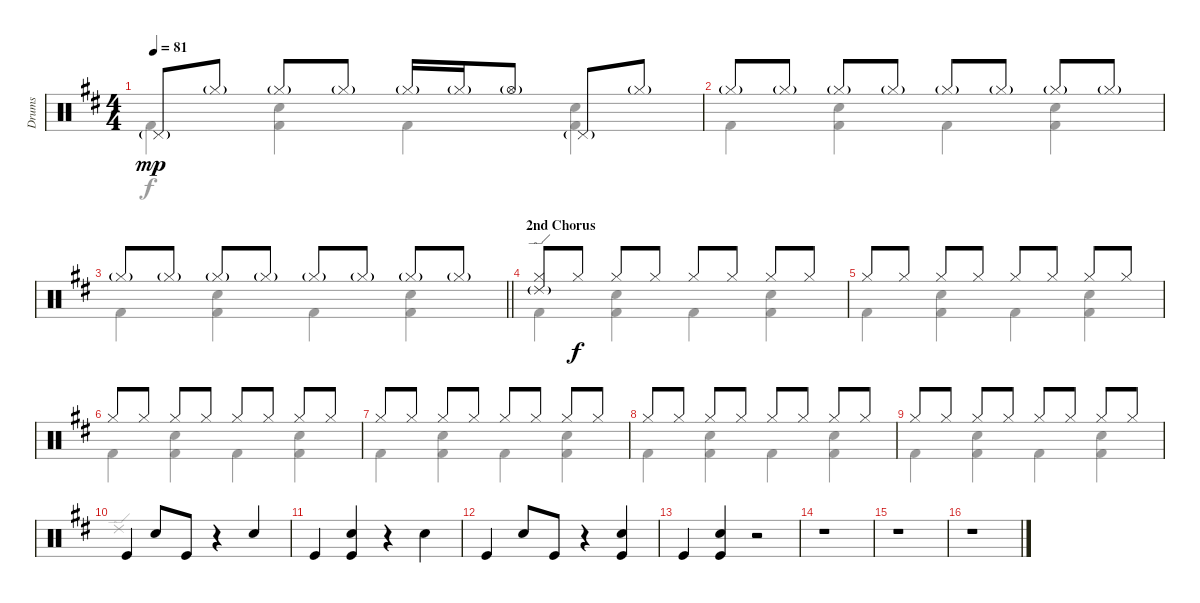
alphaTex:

\track ("Drums" "Drums") {instrument percussion}
\staff {score}
\articulation defaults
\voice
\ts (4 4)
\tempo 81
\clef neutral
\ks d "Pedal Hi-Hat (hit)"{g}.8{dy mp} "Hi-Hat (closed)"{g}.8 "Hi-Hat (closed)"{g}.8 "Hi-Hat (closed)"{g}.8 "Hi-Hat (closed)"{g}.16 "Hi-Hat (closed)"{g}.16 "Hi-Hat (open)"{g}.8 "Pedal Hi-Hat (hit)"{g}.8 "Hi-Hat (closed)"{g}.8
|
"Hi-Hat (closed)"{g}.8 "Hi-Hat (closed)"{g}.8 "Hi-Hat (closed)"{g}.8 "Hi-Hat (closed)"{g}.8 "Hi-Hat (closed)"{g}.8 "Hi-Hat (closed)"{g}.8 "Hi-Hat (closed)"{g}.8 "Hi-Hat (closed)"{g}.8 |
\barLineRight lightlight "Hi-Hat (closed)"{g}.8 "Hi-Hat (closed)"{g}.8 "Hi-Hat (closed)"{g}.8 "Hi-Hat (closed)"{g}.8 "Hi-Hat (closed)"{g}.8 "Hi-Hat (closed)"{g}.8 "Hi-Hat (closed)"{g}.8 "Hi-Hat (closed)"{g}.8
|
\section ("" "2nd Chorus")
("Hi-Hat (closed)" "Ride (edge) 2"{g}).8 "Hi-Hat (closed)".8{dy f} "Hi-Hat (closed)".8 "Hi-Hat (closed)".8 "Hi-Hat (closed)".8 "Hi-Hat (closed)".8 "Hi-Hat (closed)".8 "Hi-Hat (closed)".8 |
"Hi-Hat (closed)".8 "Hi-Hat (closed)".8 "Hi-Hat (closed)".8 "Hi-Hat (closed)".8 "Hi-Hat (closed)".8 "Hi-Hat (closed)".8 "Hi-Hat (closed)".8 "Hi-Hat (closed)".8 |
"Hi-Hat (closed)".8 "Hi-Hat (closed)".8 "Hi-Hat (closed)".8 "Hi-Hat (closed)".8 "Hi-Hat (closed)".8 "Hi-Hat (closed)".8 "Hi-Hat (closed)".8 "Hi-Hat (closed)".8 |
"Hi-Hat (closed)".8 "Hi-Hat (closed)".8 "Hi-Hat (closed)".8 "Hi-Hat (closed)".8 "Hi-Hat (closed)".8 "Hi-Hat (closed)".8 "Hi-Hat (closed)".8 "Hi-Hat (closed)".8 |
"Hi-Hat (closed)".8 "Hi-Hat (closed)".8 "Hi-Hat (closed)".8 "Hi-Hat (closed)".8 "Hi-Hat (closed)".8 "Hi-Hat (closed)".8 "Hi-Hat (closed)".8 "Hi-Hat (closed)".8 |
"Hi-Hat (closed)".8 "Hi-Hat (closed)".8 "Hi-Hat (closed)".8 "Hi-Hat (closed)".8 "Hi-Hat (closed)".8 "Hi-Hat (closed)".8 "Hi-Hat (closed)".8 "Hi-Hat (closed)".8 |
"Kick (hit)".4 "Snare (hit) 2".8 "Kick (hit)".8 r.4 "Snare (hit) 2".4 |
"Kick (hit)".4 ("Snare (hit) 2" "Kick (hit)").4 r.4 "Snare (hit) 2".4 |
"Kick (hit)".4 "Snare (hit) 2".8 "Kick (hit)".8 r.4 ("Snare (hit) 2" "Kick (hit)").4 |
"Kick (hit)".4 ("Snare (hit) 2" "Kick (hit)").4 r.2 |
r.1 |
r.1 |
r.1
\voice
\clef neutral
\ottava regular
\simile none
\ks d "Kick (hit) 2".4{dy f}
("Snare (hit) 2" "Kick (hit) 2").4 "Kick (hit) 2".4 ("Snare (hit) 2" "Kick (hit) 2").4 |
"Kick (hit) 2".4 ("Snare (hit) 2" "Kick (hit) 2").4 "Kick (hit) 2".4 ("Snare (hit) 2" "Kick (hit) 2").4 |
\barLineRight lightlight "Kick (hit) 2".4
("Snare (hit) 2" "Kick (hit) 2").4 "Kick (hit) 2".4 ("Snare (hit) 2" "Kick (hit) 2").4 |
"Kick (hit) 2".4 ("Snare (hit) 2" "Kick (hit) 2").4 "Kick (hit) 2".4 ("Snare (hit) 2" "Kick (hit) 2").4 |
"Kick (hit) 2".4 ("Snare (hit) 2" "Kick (hit) 2").4 "Kick (hit) 2".4 ("Snare (hit) 2" "Kick (hit) 2").4 |
"Kick (hit) 2".4 ("Snare (hit) 2" "Kick (hit) 2").4 "Kick (hit) 2".4 ("Snare (hit) 2" "Kick (hit) 2").4 |
"Kick (hit) 2".4 ("Snare (hit) 2" "Kick (hit) 2").4 "Kick (hit) 2".4 ("Snare (hit) 2" "Kick (hit) 2").4 |
"Kick (hit) 2".4 ("Snare (hit) 2" "Kick (hit) 2").4 "Kick (hit) 2".4 ("Snare (hit) 2" "Kick (hit) 2").4 |
"Kick (hit) 2".4 ("Snare (hit) 2" "Kick (hit) 2").4 "Kick (hit) 2".4 ("Snare (hit) 2" "Kick (hit) 2").4 |
"Ride (edge) 2".1 |
|
|
|
|
|
